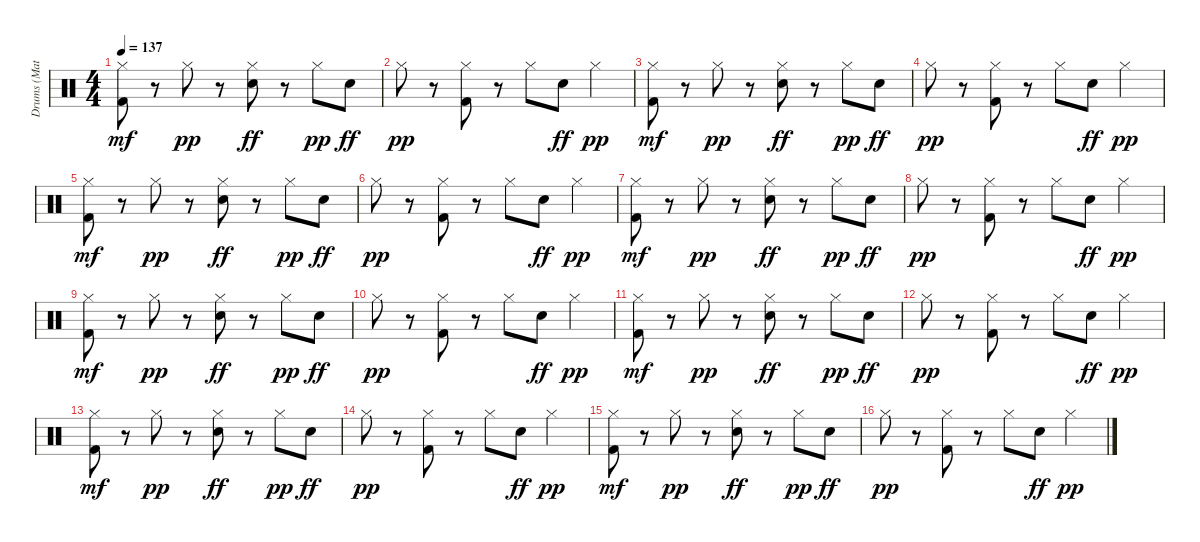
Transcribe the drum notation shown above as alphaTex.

\track ("Drums (Matthias)" "Drums (Mat") {instrument percussion}
\staff {score}
\articulation defaults
\ts (4 4)
\tempo 137
\clef neutral
\ks c
("Hi-Hat (closed)" "Kick (hit) 2").8{dy mf} r.8 "Hi-Hat (closed)".8{dy pp} r.8 ("Hi-Hat (closed)" "Electric Snare (hit)").8{dy ff} r.8 "Hi-Hat (closed)".8{dy pp} "Electric Snare (hit)".8{dy ff} |
"Hi-Hat (closed)".8{dy pp} r.8 ("Hi-Hat (closed)" "Kick (hit) 2").8 r.8 "Hi-Hat (closed)".8 "Electric Snare (hit)".8{dy ff} "Hi-Hat (closed)".4{dy pp} |
("Hi-Hat (closed)" "Kick (hit) 2").8{dy mf} r.8 "Hi-Hat (closed)".8{dy pp} r.8 ("Hi-Hat (closed)" "Electric Snare (hit)").8{dy ff} r.8 "Hi-Hat (closed)".8{dy pp} "Electric Snare (hit)".8{dy ff} |
"Hi-Hat (closed)".8{dy pp} r.8 ("Hi-Hat (closed)" "Kick (hit) 2").8 r.8 "Hi-Hat (closed)".8 "Electric Snare (hit)".8{dy ff} "Hi-Hat (closed)".4{dy pp} |
("Hi-Hat (closed)" "Kick (hit) 2").8{dy mf} r.8 "Hi-Hat (closed)".8{dy pp} r.8 ("Hi-Hat (closed)" "Electric Snare (hit)").8{dy ff} r.8 "Hi-Hat (closed)".8{dy pp} "Electric Snare (hit)".8{dy ff} |
"Hi-Hat (closed)".8{dy pp} r.8 ("Hi-Hat (closed)" "Kick (hit) 2").8 r.8 "Hi-Hat (closed)".8 "Electric Snare (hit)".8{dy ff} "Hi-Hat (closed)".4{dy pp} |
("Hi-Hat (closed)" "Kick (hit) 2").8{dy mf} r.8 "Hi-Hat (closed)".8{dy pp} r.8 ("Hi-Hat (closed)" "Electric Snare (hit)").8{dy ff} r.8 "Hi-Hat (closed)".8{dy pp} "Electric Snare (hit)".8{dy ff} |
"Hi-Hat (closed)".8{dy pp} r.8 ("Hi-Hat (closed)" "Kick (hit) 2").8 r.8 "Hi-Hat (closed)".8 "Electric Snare (hit)".8{dy ff} "Hi-Hat (closed)".4{dy pp} |
("Hi-Hat (closed)" "Kick (hit) 2").8{dy mf} r.8 "Hi-Hat (closed)".8{dy pp} r.8 ("Hi-Hat (closed)" "Electric Snare (hit)").8{dy ff} r.8 "Hi-Hat (closed)".8{dy pp} "Electric Snare (hit)".8{dy ff} |
"Hi-Hat (closed)".8{dy pp} r.8 ("Hi-Hat (closed)" "Kick (hit) 2").8 r.8 "Hi-Hat (closed)".8 "Electric Snare (hit)".8{dy ff} "Hi-Hat (closed)".4{dy pp} |
("Hi-Hat (closed)" "Kick (hit) 2").8{dy mf} r.8 "Hi-Hat (closed)".8{dy pp} r.8 ("Hi-Hat (closed)" "Electric Snare (hit)").8{dy ff} r.8 "Hi-Hat (closed)".8{dy pp} "Electric Snare (hit)".8{dy ff} |
"Hi-Hat (closed)".8{dy pp} r.8 ("Hi-Hat (closed)" "Kick (hit) 2").8 r.8 "Hi-Hat (closed)".8 "Electric Snare (hit)".8{dy ff} "Hi-Hat (closed)".4{dy pp} |
("Hi-Hat (closed)" "Kick (hit) 2").8{dy mf} r.8 "Hi-Hat (closed)".8{dy pp} r.8 ("Hi-Hat (closed)" "Electric Snare (hit)").8{dy ff} r.8 "Hi-Hat (closed)".8{dy pp} "Electric Snare (hit)".8{dy ff} |
"Hi-Hat (closed)".8{dy pp} r.8 ("Hi-Hat (closed)" "Kick (hit) 2").8 r.8 "Hi-Hat (closed)".8 "Electric Snare (hit)".8{dy ff} "Hi-Hat (closed)".4{dy pp} |
("Hi-Hat (closed)" "Kick (hit) 2").8{dy mf} r.8 "Hi-Hat (closed)".8{dy pp} r.8 ("Hi-Hat (closed)" "Electric Snare (hit)").8{dy ff} r.8 "Hi-Hat (closed)".8{dy pp} "Electric Snare (hit)".8{dy ff} |
"Hi-Hat (closed)".8{dy pp} r.8 ("Hi-Hat (closed)" "Kick (hit) 2").8 r.8 "Hi-Hat (closed)".8 "Electric Snare (hit)".8{dy ff} "Hi-Hat (closed)".4{dy pp}
